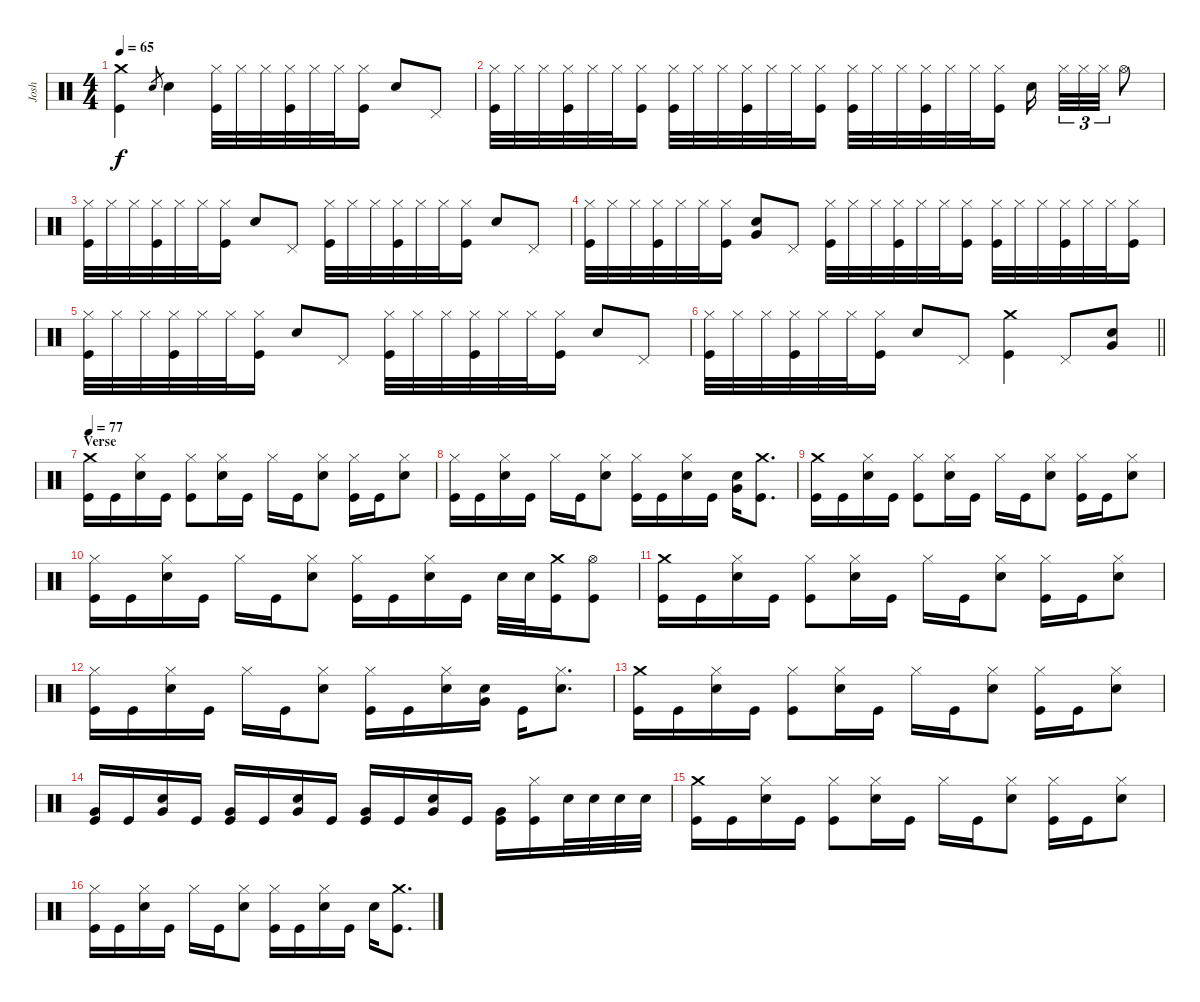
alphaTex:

\track ("Josh" "Josh") {instrument percussion}
\staff {score}
\articulation defaults
\ts (4 4)
\tempo 65
\clef neutral
\ks c
("Crash medium (hit)" "Kick (hit)").4{dy f} "Snare (hit) 2".8{gr} "Snare (hit) 2".4 ("Hi-Hat (closed)" "Kick (hit)").32 "Hi-Hat (closed)".32 "Hi-Hat (closed)".32 ("Hi-Hat (closed)" "Kick (hit)").32 "Hi-Hat (closed)".32 "Hi-Hat (closed)".32 ("Hi-Hat (closed)" "Kick (hit)").16 "Snare (hit) 2".8 "Pedal Hi-Hat (hit)".8 |
("Hi-Hat (closed)" "Kick (hit)").32 "Hi-Hat (closed)".32 "Hi-Hat (closed)".32 ("Hi-Hat (closed)" "Kick (hit)").32 "Hi-Hat (closed)".32 "Hi-Hat (closed)".32 ("Hi-Hat (closed)" "Kick (hit)").16 ("Hi-Hat (closed)" "Kick (hit)").32 "Hi-Hat (closed)".32 "Hi-Hat (closed)".32 ("Hi-Hat (closed)" "Kick (hit)").32 "Hi-Hat (closed)".32 "Hi-Hat (closed)".32 ("Hi-Hat (closed)" "Kick (hit)").16 ("Hi-Hat (closed)" "Kick (hit)").32 "Hi-Hat (closed)".32 "Hi-Hat (closed)".32 ("Hi-Hat (closed)" "Kick (hit)").32 "Hi-Hat (closed)".32 "Hi-Hat (closed)".32 ("Hi-Hat (closed)" "Kick (hit)").16 "Snare (hit) 2".16{beam splitsecondary} "Hi-Hat (closed)".32{tu (3 2)} "Hi-Hat (closed)".32{tu (3 2)} "Hi-Hat (closed)".32{tu (3 2)} "Hi-Hat (open)".8 |
("Hi-Hat (closed)" "Kick (hit)").32 "Hi-Hat (closed)".32 "Hi-Hat (closed)".32 ("Hi-Hat (closed)" "Kick (hit)").32 "Hi-Hat (closed)".32 "Hi-Hat (closed)".32 ("Hi-Hat (closed)" "Kick (hit)").16 "Snare (hit) 2".8 "Pedal Hi-Hat (hit)".8 ("Hi-Hat (closed)" "Kick (hit)").32 "Hi-Hat (closed)".32 "Hi-Hat (closed)".32 ("Hi-Hat (closed)" "Kick (hit)").32 "Hi-Hat (closed)".32 "Hi-Hat (closed)".32 ("Hi-Hat (closed)" "Kick (hit)").16 "Snare (hit) 2".8 "Pedal Hi-Hat (hit)".8 |
("Hi-Hat (closed)" "Kick (hit)").32 "Hi-Hat (closed)".32 "Hi-Hat (closed)".32 ("Hi-Hat (closed)" "Kick (hit)").32 "Hi-Hat (closed)".32 "Hi-Hat (closed)".32 ("Hi-Hat (closed)" "Kick (hit)").16 ("Very Low Tom (hit)" "Snare (hit) 2").8 "Pedal Hi-Hat (hit)".8 ("Hi-Hat (closed)" "Kick (hit)").32 "Hi-Hat (closed)".32 "Hi-Hat (closed)".32 ("Hi-Hat (closed)" "Kick (hit)").32 "Hi-Hat (closed)".32 "Hi-Hat (closed)".32 ("Hi-Hat (closed)" "Kick (hit)").16 ("Hi-Hat (closed)" "Kick (hit)").32 "Hi-Hat (closed)".32 "Hi-Hat (closed)".32 ("Hi-Hat (closed)" "Kick (hit)").32 "Hi-Hat (closed)".32 "Hi-Hat (closed)".32 ("Hi-Hat (closed)" "Kick (hit)").16 |
("Hi-Hat (closed)" "Kick (hit)").32 "Hi-Hat (closed)".32 "Hi-Hat (closed)".32 ("Hi-Hat (closed)" "Kick (hit)").32 "Hi-Hat (closed)".32 "Hi-Hat (closed)".32 ("Hi-Hat (closed)" "Kick (hit)").16 "Snare (hit) 2".8 "Pedal Hi-Hat (hit)".8 ("Hi-Hat (closed)" "Kick (hit)").32 "Hi-Hat (closed)".32 "Hi-Hat (closed)".32 ("Hi-Hat (closed)" "Kick (hit)").32 "Hi-Hat (closed)".32 "Hi-Hat (closed)".32 ("Hi-Hat (closed)" "Kick (hit)").16 "Snare (hit) 2".8 "Pedal Hi-Hat (hit)".8 |
\barLineRight lightlight
("Hi-Hat (closed)" "Kick (hit)").32 "Hi-Hat (closed)".32 "Hi-Hat (closed)".32 ("Hi-Hat (closed)" "Kick (hit)").32 "Hi-Hat (closed)".32 "Hi-Hat (closed)".32 ("Hi-Hat (closed)" "Kick (hit)").16 "Snare (hit) 2".8 "Pedal Hi-Hat (hit)".8 ("Crash medium (hit)" "Kick (hit)").4 "Pedal Hi-Hat (hit)".8 ("Very Low Tom (hit)" "Snare (hit) 2").8 |
\section ("" "Verse")
\tempo 77
("Crash medium (hit)" "Kick (hit)").16 "Kick (hit)".16 ("Hi-Hat (closed)" "Snare (hit) 2").16 "Kick (hit)".16 ("Hi-Hat (closed)" "Kick (hit)").8 ("Hi-Hat (closed)" "Snare (hit) 2").16 "Kick (hit)".16 "Hi-Hat (closed)".16 "Kick (hit)".16 ("Hi-Hat (closed)" "Snare (hit) 2").8 ("Hi-Hat (closed)" "Kick (hit)").16 "Kick (hit)".16 ("Hi-Hat (closed)" "Snare (hit) 2").8 |
("Hi-Hat (closed)" "Kick (hit)").16 "Kick (hit)".16 ("Hi-Hat (closed)" "Snare (hit) 2").16 "Kick (hit)".16 "Hi-Hat (closed)".16 "Kick (hit)".16 ("Hi-Hat (closed)" "Snare (hit) 2").8 ("Hi-Hat (closed)" "Kick (hit)").16 "Kick (hit)".16 ("Hi-Hat (closed)" "Snare (hit) 2").16 "Kick (hit)".16 ("Very Low Tom (hit)" "Snare (hit) 2").16 ("Crash medium (hit)" "Kick (hit)").8{d} |
("Crash medium (hit)" "Kick (hit)").16 "Kick (hit)".16 ("Hi-Hat (closed)" "Snare (hit) 2").16 "Kick (hit)".16 ("Hi-Hat (closed)" "Kick (hit)").8 ("Hi-Hat (closed)" "Snare (hit) 2").16 "Kick (hit)".16 "Hi-Hat (closed)".16 "Kick (hit)".16 ("Hi-Hat (closed)" "Snare (hit) 2").8 ("Hi-Hat (closed)" "Kick (hit)").16 "Kick (hit)".16 ("Hi-Hat (closed)" "Snare (hit) 2").8 |
("Hi-Hat (closed)" "Kick (hit)").16 "Kick (hit)".16 ("Hi-Hat (closed)" "Snare (hit) 2").16 "Kick (hit)".16 "Hi-Hat (closed)".16 "Kick (hit)".16 ("Hi-Hat (closed)" "Snare (hit) 2").8 ("Hi-Hat (closed)" "Kick (hit)").16 "Kick (hit)".16 ("Hi-Hat (closed)" "Snare (hit) 2").16 "Kick (hit)".16 "Snare (hit) 2".32 "Snare (hit) 2".32 ("Crash medium (hit)" "Kick (hit)").16 ("Hi-Hat (open)" "Kick (hit)").8 |
("Crash medium (hit)" "Kick (hit)").16 "Kick (hit)".16 ("Hi-Hat (closed)" "Snare (hit) 2").16 "Kick (hit)".16 ("Hi-Hat (closed)" "Kick (hit)").8 ("Hi-Hat (closed)" "Snare (hit) 2").16 "Kick (hit)".16 "Hi-Hat (closed)".16 "Kick (hit)".16 ("Hi-Hat (closed)" "Snare (hit) 2").8 ("Hi-Hat (closed)" "Kick (hit)").16 "Kick (hit)".16 ("Hi-Hat (closed)" "Snare (hit) 2").8 |
("Hi-Hat (closed)" "Kick (hit)").16 "Kick (hit)".16 ("Hi-Hat (closed)" "Snare (hit) 2").16 "Kick (hit)".16 "Hi-Hat (closed)".16 "Kick (hit)".16 ("Hi-Hat (closed)" "Snare (hit) 2").8 ("Hi-Hat (closed)" "Kick (hit)").16 "Kick (hit)".16 ("Hi-Hat (closed)" "Snare (hit) 2").16 ("Very Low Tom (hit)" "Snare (hit) 2").16 "Kick (hit)".16 ("Hi-Hat (closed)" "Snare (hit) 2").8{d} |
("Crash medium (hit)" "Kick (hit)").16 "Kick (hit)".16 ("Hi-Hat (closed)" "Snare (hit) 2").16 "Kick (hit)".16 ("Hi-Hat (closed)" "Kick (hit)").8 ("Hi-Hat (closed)" "Snare (hit) 2").16 "Kick (hit)".16 "Hi-Hat (closed)".16 "Kick (hit)".16 ("Hi-Hat (closed)" "Snare (hit) 2").8 ("Hi-Hat (closed)" "Kick (hit)").16 "Kick (hit)".16 ("Hi-Hat (closed)" "Snare (hit) 2").8 |
("Very Low Tom (hit)" "Kick (hit)").16 "Kick (hit)".16 ("Very Low Tom (hit)" "Snare (hit) 2").16 "Kick (hit)".16 ("Very Low Tom (hit)" "Kick (hit)").16 "Kick (hit)".16 ("Very Low Tom (hit)" "Snare (hit) 2").16 "Kick (hit)".16 ("Very Low Tom (hit)" "Kick (hit)").16 "Kick (hit)".16 ("Very Low Tom (hit)" "Snare (hit) 2").16 "Kick (hit)".16 ("Very Low Tom (hit)" "Kick (hit)").16 ("Hi-Hat (closed)" "Kick (hit)").16 "Snare (hit) 2".32 "Snare (hit) 2".32 "Snare (hit) 2".32 "Snare (hit) 2".32 |
("Crash medium (hit)" "Kick (hit)").16 "Kick (hit)".16 ("Hi-Hat (closed)" "Snare (hit) 2").16 "Kick (hit)".16 ("Hi-Hat (closed)" "Kick (hit)").8 ("Hi-Hat (closed)" "Snare (hit) 2").16 "Kick (hit)".16 "Hi-Hat (closed)".16 "Kick (hit)".16 ("Hi-Hat (closed)" "Snare (hit) 2").8 ("Hi-Hat (closed)" "Kick (hit)").16 "Kick (hit)".16 ("Hi-Hat (closed)" "Snare (hit) 2").8 |
("Hi-Hat (closed)" "Kick (hit)").16 "Kick (hit)".16 ("Hi-Hat (closed)" "Snare (hit) 2").16 "Kick (hit)".16 "Hi-Hat (closed)".16 "Kick (hit)".16 ("Hi-Hat (closed)" "Snare (hit) 2").8 ("Hi-Hat (closed)" "Kick (hit)").16 "Kick (hit)".16 ("Hi-Hat (closed)" "Snare (hit) 2").16 "Kick (hit)".16 "Snare (hit) 2".16 ("Crash medium (hit)" "Kick (hit)").8{d}
